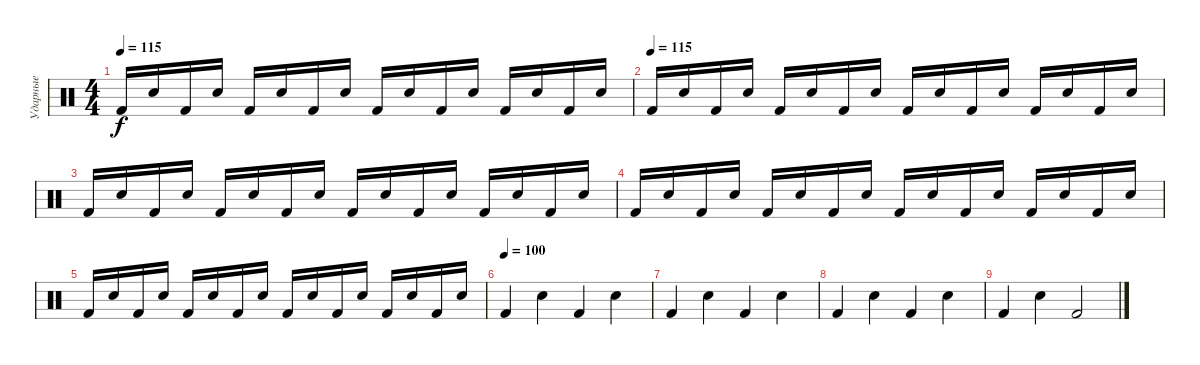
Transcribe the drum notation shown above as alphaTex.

\track ("Ударные" "Ударные") {instrument percussion}
\staff {score}
\articulation defaults
\ts (4 4)
\tempo 115
\clef neutral
\ks c "Kick (hit) 2".16{dy f} "Electric Snare (hit)".16 "Kick (hit) 2".16 "Electric Snare (hit)".16 "Kick (hit) 2".16 "Electric Snare (hit)".16 "Kick (hit) 2".16 "Electric Snare (hit)".16 "Kick (hit) 2".16 "Electric Snare (hit)".16 "Kick (hit) 2".16 "Electric Snare (hit)".16 "Kick (hit) 2".16 "Electric Snare (hit)".16 "Kick (hit) 2".16 "Electric Snare (hit)".16
|
\tempo (115)
"Kick (hit) 2".16 "Electric Snare (hit)".16 "Kick (hit) 2".16 "Electric Snare (hit)".16 "Kick (hit) 2".16 "Electric Snare (hit)".16 "Kick (hit) 2".16 "Electric Snare (hit)".16 "Kick (hit) 2".16 "Electric Snare (hit)".16 "Kick (hit) 2".16 "Electric Snare (hit)".16 "Kick (hit) 2".16 "Electric Snare (hit)".16 "Kick (hit) 2".16 "Electric Snare (hit)".16 |
"Kick (hit) 2".16 "Electric Snare (hit)".16 "Kick (hit) 2".16 "Electric Snare (hit)".16 "Kick (hit) 2".16 "Electric Snare (hit)".16 "Kick (hit) 2".16 "Electric Snare (hit)".16 "Kick (hit) 2".16 "Electric Snare (hit)".16 "Kick (hit) 2".16 "Electric Snare (hit)".16 "Kick (hit) 2".16 "Electric Snare (hit)".16 "Kick (hit) 2".16 "Electric Snare (hit)".16 |
"Kick (hit) 2".16 "Electric Snare (hit)".16 "Kick (hit) 2".16 "Electric Snare (hit)".16 "Kick (hit) 2".16 "Electric Snare (hit)".16 "Kick (hit) 2".16 "Electric Snare (hit)".16 "Kick (hit) 2".16 "Electric Snare (hit)".16 "Kick (hit) 2".16 "Electric Snare (hit)".16 "Kick (hit) 2".16 "Electric Snare (hit)".16 "Kick (hit) 2".16 "Electric Snare (hit)".16 |
"Kick (hit) 2".16 "Electric Snare (hit)".16 "Kick (hit) 2".16 "Electric Snare (hit)".16 "Kick (hit) 2".16 "Electric Snare (hit)".16 "Kick (hit) 2".16 "Electric Snare (hit)".16 "Kick (hit) 2".16 "Electric Snare (hit)".16 "Kick (hit) 2".16 "Electric Snare (hit)".16 "Kick (hit) 2".16 "Electric Snare (hit)".16 "Kick (hit) 2".16 "Electric Snare (hit)".16 |
\tempo (100)
"Kick (hit) 2".4 "Electric Snare (hit)".4 "Kick (hit) 2".4 "Electric Snare (hit)".4 |
"Kick (hit) 2".4 "Electric Snare (hit)".4 "Kick (hit) 2".4 "Electric Snare (hit)".4 |
"Kick (hit) 2".4 "Electric Snare (hit)".4 "Kick (hit) 2".4 "Electric Snare (hit)".4 |
"Kick (hit) 2".4 "Electric Snare (hit)".4 "Kick (hit) 2".2
